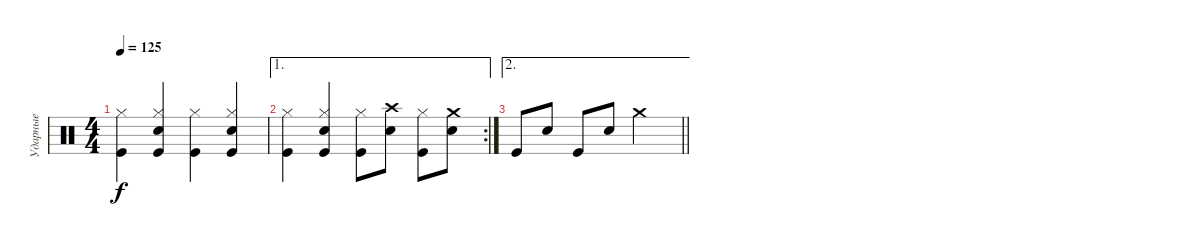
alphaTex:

\track ("Ударные" "Ударные") {instrument percussion}
\staff {score}
\articulation defaults
\ts (4 4)
\tempo 125
\clef neutral
\ks c
("Kick (hit)" "Hi-Hat (closed)").4{dy f} ("Kick (hit)" "Snare (hit) 2" "Hi-Hat (closed)").4 ("Kick (hit)" "Hi-Hat (closed)").4 ("Kick (hit)" "Snare (hit) 2" "Hi-Hat (closed)").4 |
\ae 1
\rc 2
("Kick (hit)" "Hi-Hat (closed)").4 ("Kick (hit)" "Snare (hit) 2" "Hi-Hat (closed)").4 ("Kick (hit)" "Hi-Hat (closed)").8 ("Snare (hit) 2" "Crash high (hit)").8 ("Kick (hit)" "Hi-Hat (closed)").8 ("Snare (hit) 2" "Crash medium (hit)").8 |
\ae 2
\barLineRight lightlight "Kick (hit)".8 "Snare (hit) 2".8 "Kick (hit)".8 "Snare (hit) 2".8 "Crash medium (hit)".2
